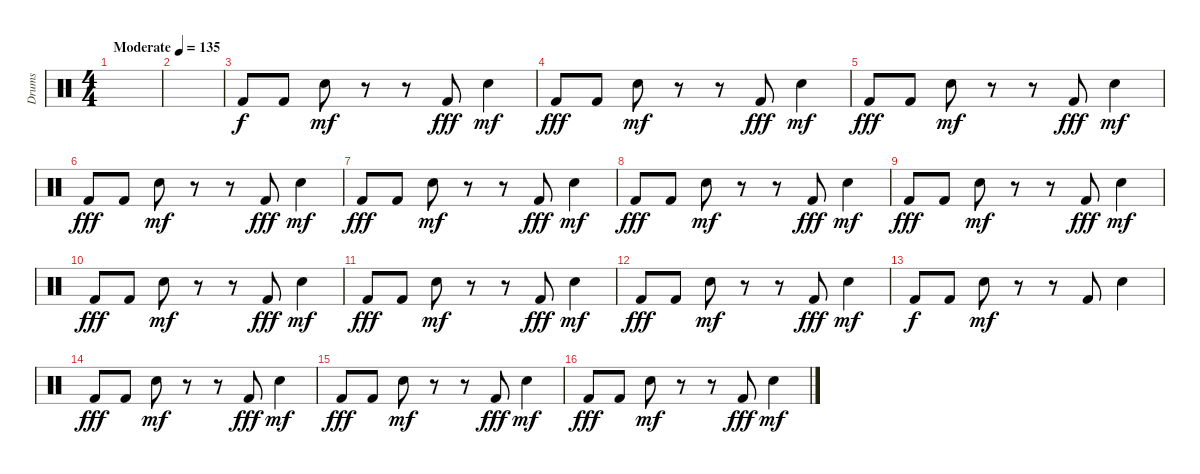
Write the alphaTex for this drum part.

\track ("Drums" "Drums") {instrument percussion}
\staff {score}
\articulation defaults
\ts (4 4)
\tempo (135 "Moderate")
\clef neutral
\ks c
|
|
"Kick (hit) 2".8 "Kick (hit) 2".8 "Snare (hit) 2".8{dy mf} r.8 r.8 "Kick (hit) 2".8{dy fff} "Snare (hit) 2".4{dy mf} |
"Kick (hit) 2".8{dy fff} "Kick (hit) 2".8 "Snare (hit) 2".8{dy mf} r.8 r.8 "Kick (hit) 2".8{dy fff} "Snare (hit) 2".4{dy mf} |
"Kick (hit) 2".8{dy fff} "Kick (hit) 2".8 "Snare (hit) 2".8{dy mf} r.8 r.8 "Kick (hit) 2".8{dy fff} "Snare (hit) 2".4{dy mf} |
"Kick (hit) 2".8{dy fff} "Kick (hit) 2".8 "Snare (hit) 2".8{dy mf} r.8 r.8 "Kick (hit) 2".8{dy fff} "Snare (hit) 2".4{dy mf} |
"Kick (hit) 2".8{dy fff} "Kick (hit) 2".8 "Snare (hit) 2".8{dy mf} r.8 r.8 "Kick (hit) 2".8{dy fff} "Snare (hit) 2".4{dy mf} |
"Kick (hit) 2".8{dy fff} "Kick (hit) 2".8 "Snare (hit) 2".8{dy mf} r.8 r.8 "Kick (hit) 2".8{dy fff} "Snare (hit) 2".4{dy mf} |
"Kick (hit) 2".8{dy fff} "Kick (hit) 2".8 "Snare (hit) 2".8{dy mf} r.8 r.8 "Kick (hit) 2".8{dy fff} "Snare (hit) 2".4{dy mf} |
"Kick (hit) 2".8{dy fff} "Kick (hit) 2".8 "Snare (hit) 2".8{dy mf} r.8 r.8 "Kick (hit) 2".8{dy fff} "Snare (hit) 2".4{dy mf} |
"Kick (hit) 2".8{dy fff} "Kick (hit) 2".8 "Snare (hit) 2".8{dy mf} r.8 r.8 "Kick (hit) 2".8{dy fff} "Snare (hit) 2".4{dy mf} |
"Kick (hit) 2".8{dy fff} "Kick (hit) 2".8 "Snare (hit) 2".8{dy mf} r.8 r.8 "Kick (hit) 2".8{dy fff} "Snare (hit) 2".4{dy mf} |
"Kick (hit) 2".8{dy f} "Kick (hit) 2".8 "Snare (hit) 2".8{dy mf} r.8 r.8 "Kick (hit) 2".8 "Snare (hit) 2".4 |
"Kick (hit) 2".8{dy fff} "Kick (hit) 2".8 "Snare (hit) 2".8{dy mf} r.8 r.8 "Kick (hit) 2".8{dy fff} "Snare (hit) 2".4{dy mf} |
"Kick (hit) 2".8{dy fff} "Kick (hit) 2".8 "Snare (hit) 2".8{dy mf} r.8 r.8 "Kick (hit) 2".8{dy fff} "Snare (hit) 2".4{dy mf} |
"Kick (hit) 2".8{dy fff} "Kick (hit) 2".8 "Snare (hit) 2".8{dy mf} r.8 r.8 "Kick (hit) 2".8{dy fff} "Snare (hit) 2".4{dy mf}
